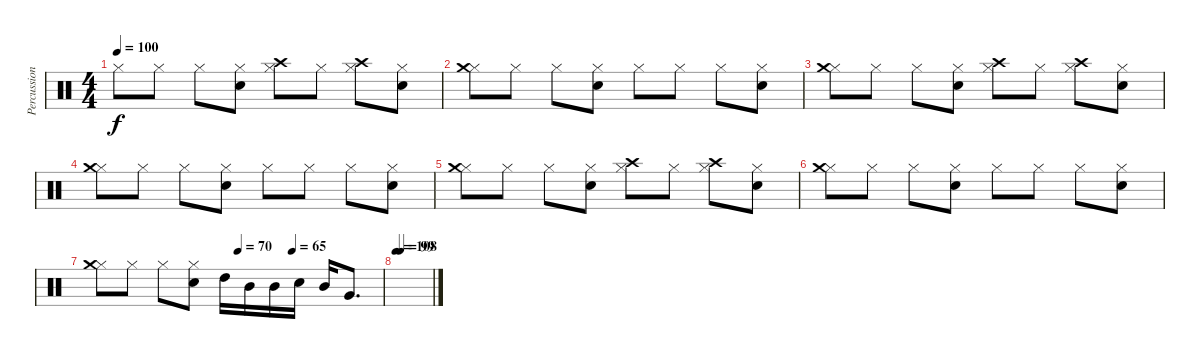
\track ("Percussion" "Percussion") {instrument percussion}
\staff {score}
\articulation defaults
\ts (4 4)
\tempo 100
\clef neutral
\ks c "Hi-Hat (closed)".8{dy f} "Hi-Hat (closed)".8 "Hi-Hat (closed)".8
("Hi-Hat (closed)" "Snare (hit) 2").8 ("Hi-Hat (closed)" "Crash high (hit)").8 "Hi-Hat (closed)".8 ("Hi-Hat (closed)" "Crash high (hit)").8 ("Hi-Hat (closed)" "Snare (hit) 2").8 |
("Hi-Hat (closed)" "Crash medium (hit)").8 "Hi-Hat (closed)".8 "Hi-Hat (closed)".8 ("Hi-Hat (closed)" "Snare (hit) 2").8 "Hi-Hat (closed)".8 "Hi-Hat (closed)".8 "Hi-Hat (closed)".8 ("Hi-Hat (closed)" "Snare (hit) 2").8 |
("Hi-Hat (closed)" "Crash medium (hit)").8 "Hi-Hat (closed)".8 "Hi-Hat (closed)".8 ("Hi-Hat (closed)" "Snare (hit) 2").8 ("Hi-Hat (closed)" "Crash high (hit)").8 "Hi-Hat (closed)".8 ("Hi-Hat (closed)" "Crash high (hit)").8 ("Hi-Hat (closed)" "Snare (hit) 2").8 |
("Hi-Hat (closed)" "Crash medium (hit)").8 "Hi-Hat (closed)".8 "Hi-Hat (closed)".8 ("Hi-Hat (closed)" "Snare (hit) 2").8 "Hi-Hat (closed)".8 "Hi-Hat (closed)".8 "Hi-Hat (closed)".8 ("Hi-Hat (closed)" "Snare (hit) 2").8 |
("Hi-Hat (closed)" "Crash medium (hit)").8 "Hi-Hat (closed)".8 "Hi-Hat (closed)".8 ("Hi-Hat (closed)" "Snare (hit) 2").8 ("Hi-Hat (closed)" "Crash high (hit)").8 "Hi-Hat (closed)".8 ("Hi-Hat (closed)" "Crash high (hit)").8 ("Hi-Hat (closed)" "Snare (hit) 2").8 |
("Hi-Hat (closed)" "Crash medium (hit)").8 "Hi-Hat (closed)".8 "Hi-Hat (closed)".8 ("Hi-Hat (closed)" "Snare (hit) 2").8 "Hi-Hat (closed)".8 "Hi-Hat (closed)".8 "Hi-Hat (closed)".8 ("Hi-Hat (closed)" "Snare (hit) 2").8 |
\tempo (70 0.5)
\tempo (65 0.6875)
("Hi-Hat (closed)" "Crash medium (hit)").8 "Hi-Hat (closed)".8 "Hi-Hat (closed)".8 ("Hi-Hat (closed)" "Snare (hit) 2").8 "High Tom (hit)".16 "Mid Tom (hit)".16 "Mid Tom (hit)".16 "Snare (hit) 2".16 "Mid Tom (hit)".16 "Very Low Tom (hit)".8{d} |
\tempo 108
\tempo (99 0.125)
